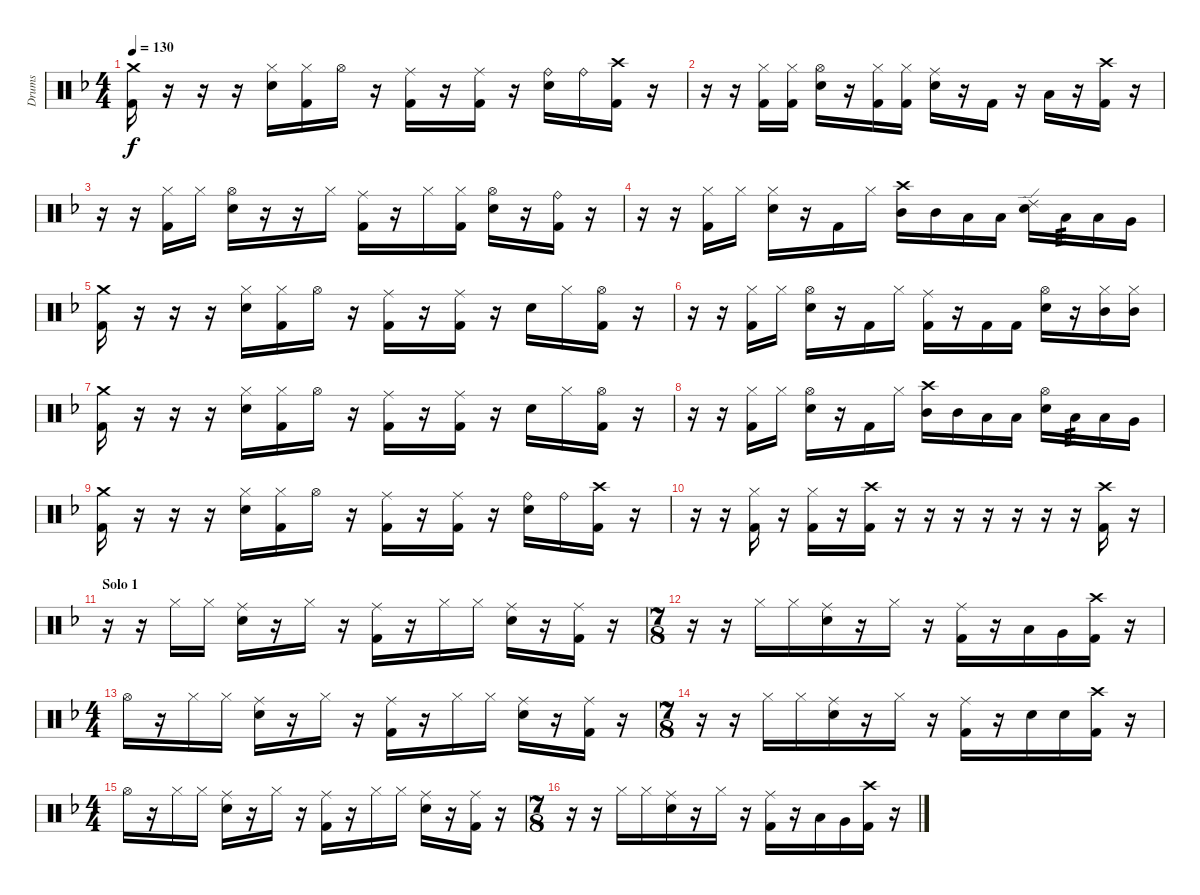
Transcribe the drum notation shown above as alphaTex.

\track ("Drums" "Drums") {instrument percussion}
\staff {score}
\articulation defaults
\ts (4 4)
\tempo 130
\clef neutral
\ks dminor
("Kick (hit) 2" "Crash medium (hit)").16{dy f} r.16 r.16 r.16 ("Snare (hit) 2" "Hi-Hat (closed)").16 ("Kick (hit) 2" "Hi-Hat (closed)").16 "Hi-Hat (open)".16 r.16 ("Kick (hit) 2" "Ride (middle)").16 r.16 ("Kick (hit) 2" "Ride (middle)").16 r.16 ("Snare (hit) 2" "Ride (bell)").16 "Ride (bell)".16 ("Kick (hit) 2" "Crash high (hit)").16 r.16 |
r.16 r.16 ("Kick (hit) 2" "Hi-Hat (closed)").16 ("Kick (hit) 2" "Hi-Hat (closed)").16 ("Snare (hit) 2" "Hi-Hat (open)").16 r.16 ("Kick (hit) 2" "Hi-Hat (closed)").16 ("Kick (hit) 2" "Hi-Hat (closed)").16 ("Snare (hit) 2" "Ride (middle)").16 r.16 "Kick (hit) 2".16 r.16 "Low Tom (hit)".16 r.16 ("Crash high (hit)" "Kick (hit) 2").16 r.16 |
r.16 r.16 ("Kick (hit) 2" "Hi-Hat (closed)").16 "Hi-Hat (closed)".16 ("Snare (hit) 2" "Hi-Hat (open)").16 r.16 r.16 "Hi-Hat (closed)".16 ("Kick (hit) 2" "Ride (middle)").16 r.16 "Hi-Hat (closed)".16 ("Kick (hit) 2" "Hi-Hat (closed)").16 ("Snare (hit) 2" "Hi-Hat (open)").16 r.16 ("Kick (hit) 2" "Ride (bell)").16 r.16 |
r.16 r.16 ("Kick (hit) 2" "Hi-Hat (closed)").16 "Hi-Hat (closed)".16 ("Snare (hit) 2" "Hi-Hat (closed)").16 r.16 "Kick (hit) 2".16 "Hi-Hat (closed)".16 ("Mid Tom (hit)" "Crash high (hit)").16 "Mid Tom (hit)".16 "Low Tom (hit)".16 "Low Tom (hit)".16 ("Snare (hit) 2" "Ride (edge) 2").16 "Low Tom (hit)".16{tp 3} "Low Tom (hit)".16 "Very Low Tom (hit)".16 |
("Kick (hit) 2" "Crash medium (hit)").16 r.16 r.16 r.16 ("Snare (hit) 2" "Hi-Hat (closed)").16 ("Kick (hit) 2" "Hi-Hat (closed)").16 "Hi-Hat (open)".16 r.16 ("Kick (hit) 2" "Ride (middle)").16 r.16 ("Kick (hit) 2" "Ride (middle)").16 r.16 "Snare (hit) 2".16 "Hi-Hat (closed)".16 ("Kick (hit) 2" "Hi-Hat (open)").16 r.16 |
r.16 r.16 ("Kick (hit) 2" "Hi-Hat (closed)").16 "Hi-Hat (closed)".16 ("Snare (hit) 2" "Hi-Hat (open)").16 r.16 "Kick (hit) 2".16 "Hi-Hat (closed)".16 ("Kick (hit) 2" "Ride (middle)").16 r.16 "Kick (hit) 2".16 "Kick (hit) 2".16 ("Snare (hit) 2" "Hi-Hat (open)").16 r.16 ("Mid Tom (hit)" "Hi-Hat (closed)").16 ("Mid Tom (hit)" "Hi-Hat (closed)").16 |
("Kick (hit) 2" "Crash medium (hit)").16 r.16 r.16 r.16 ("Snare (hit) 2" "Hi-Hat (closed)").16 ("Kick (hit) 2" "Hi-Hat (closed)").16 "Hi-Hat (open)".16 r.16 ("Kick (hit) 2" "Ride (middle)").16 r.16 ("Kick (hit) 2" "Ride (middle)").16 r.16 "Snare (hit) 2".16 "Hi-Hat (closed)".16 ("Kick (hit) 2" "Hi-Hat (open)").16 r.16 |
r.16 r.16 ("Kick (hit) 2" "Hi-Hat (closed)").16 "Hi-Hat (closed)".16 ("Snare (hit) 2" "Hi-Hat (open)").16 r.16 "Kick (hit) 2".16 "Hi-Hat (closed)".16 ("Mid Tom (hit)" "Crash high (hit)").16 "Mid Tom (hit)".16 "Low Tom (hit)".16 "Low Tom (hit)".16 ("Snare (hit) 2" "Hi-Hat (open)").16 "Low Tom (hit)".16{tp 3} "Low Tom (hit)".16 "Very Low Tom (hit)".16 |
("Kick (hit) 2" "Crash medium (hit)").16 r.16 r.16 r.16 ("Snare (hit) 2" "Hi-Hat (closed)").16 ("Kick (hit) 2" "Hi-Hat (closed)").16 "Hi-Hat (open)".16 r.16 ("Kick (hit) 2" "Ride (middle)").16 r.16 ("Kick (hit) 2" "Ride (middle)").16 r.16 ("Snare (hit) 2" "Ride (bell)").16 "Ride (bell)".16 ("Kick (hit) 2" "Crash high (hit)").16 r.16 |
r.16 r.16 ("Hi-Hat (closed)" "Kick (hit) 2").16 r.16 ("Hi-Hat (closed)" "Kick (hit) 2").16 r.16 ("Crash high (hit)" "Kick (hit) 2").16 r.16 r.16 r.16 r.16 r.16 r.16 r.16 ("Crash high (hit)" "Kick (hit) 2").16 r.16 |
\section ("" "Solo 1")
r.16 r.16 "Hi-Hat (closed)".16 "Hi-Hat (closed)".16 ("Ride (middle)" "Snare (hit) 2").16 r.16 "Hi-Hat (closed)".16 r.16 ("Ride (middle)" "Kick (hit) 2").16 r.16 "Hi-Hat (closed)".16 "Hi-Hat (closed)".16 ("Ride (middle)" "Snare (hit) 2").16 r.16 ("Ride (middle)" "Kick (hit) 2").16 r.16 |
\ts (7 8)
r.16 r.16 "Hi-Hat (closed)".16 "Hi-Hat (closed)".16 ("Ride (middle)" "Snare (hit) 2").16 r.16 "Hi-Hat (closed)".16 r.16 ("Ride (middle)" "Kick (hit) 2").16 r.16 "Low Tom (hit)".16 "Very Low Tom (hit)".16 ("Crash high (hit)" "Kick (hit) 2").16 r.16 |
\ts (4 4)
"Hi-Hat (open)".16 r.16 "Hi-Hat (closed)".16 "Hi-Hat (closed)".16 ("Ride (middle)" "Snare (hit) 2").16 r.16 "Hi-Hat (closed)".16 r.16 ("Ride (middle)" "Kick (hit) 2").16 r.16 "Hi-Hat (closed)".16 "Hi-Hat (closed)".16 ("Ride (middle)" "Snare (hit) 2").16 r.16 ("Ride (middle)" "Kick (hit) 2").16 r.16 |
\ts (7 8)
r.16 r.16 "Hi-Hat (closed)".16 "Hi-Hat (closed)".16 ("Ride (middle)" "Snare (hit) 2").16 r.16 "Hi-Hat (closed)".16 r.16 ("Ride (middle)" "Kick (hit) 2").16 r.16 "Snare (hit) 2".16 "Snare (hit) 2".16 ("Crash high (hit)" "Kick (hit) 2").16 r.16 |
\ts (4 4)
"Hi-Hat (open)".16 r.16 "Hi-Hat (closed)".16 "Hi-Hat (closed)".16 ("Ride (middle)" "Snare (hit) 2").16 r.16 "Hi-Hat (closed)".16 r.16 ("Ride (middle)" "Kick (hit) 2").16 r.16 "Hi-Hat (closed)".16 "Hi-Hat (closed)".16 ("Ride (middle)" "Snare (hit) 2").16 r.16 ("Ride (middle)" "Kick (hit) 2").16 r.16 |
\ts (7 8)
r.16 r.16 "Hi-Hat (closed)".16 "Hi-Hat (closed)".16 ("Ride (middle)" "Snare (hit) 2").16 r.16 "Hi-Hat (closed)".16 r.16 ("Ride (middle)" "Kick (hit) 2").16 r.16 "Low Tom (hit)".16 "Very Low Tom (hit)".16 ("Crash high (hit)" "Kick (hit) 2").16 r.16
